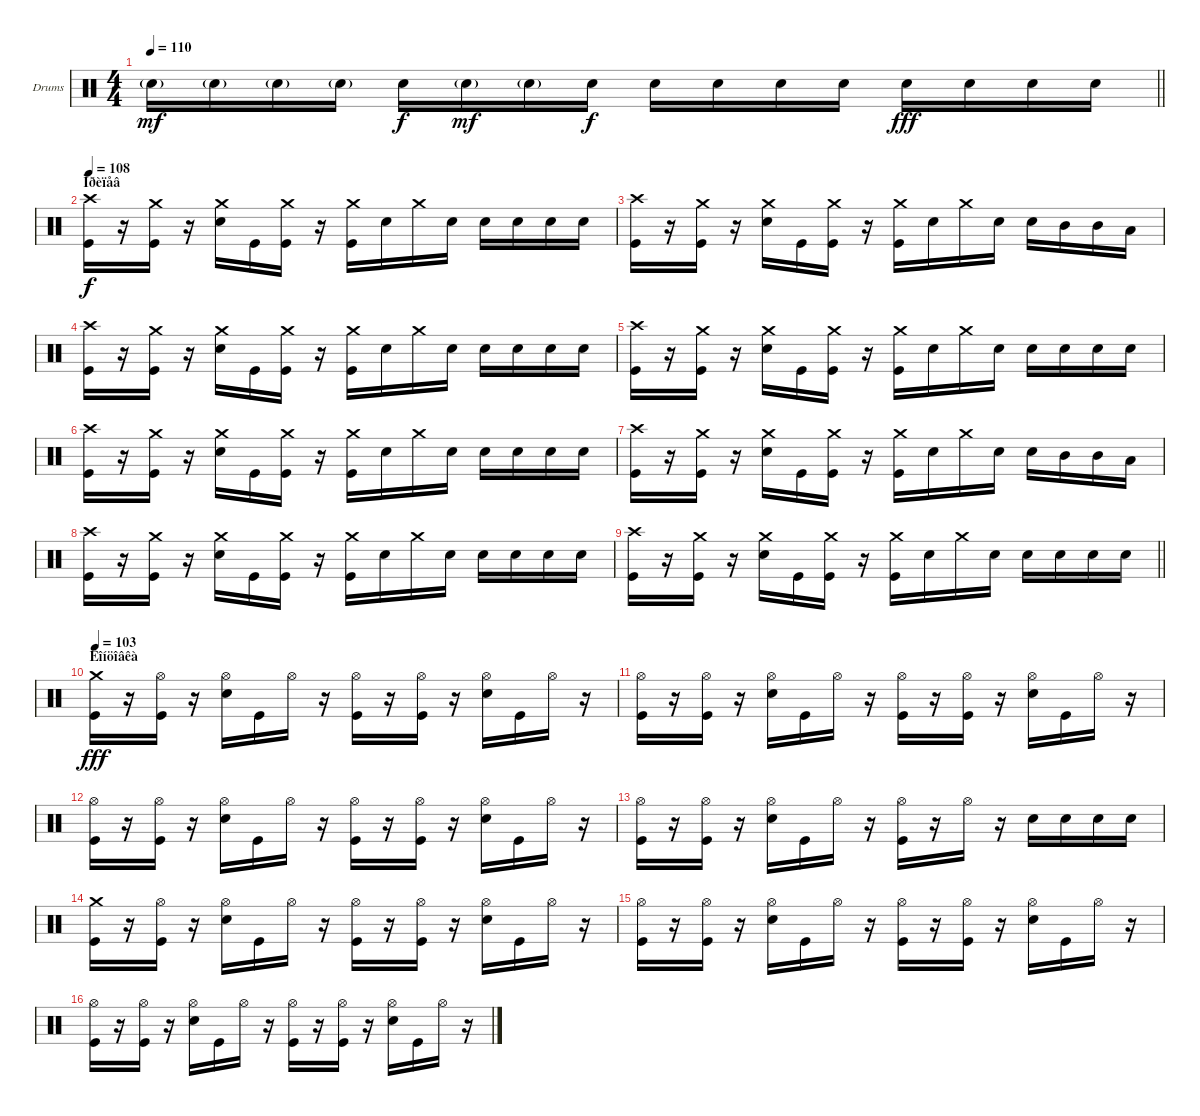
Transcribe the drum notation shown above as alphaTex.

\bracketExtendMode groupsimilarinstruments
\firstSystemTrackNameOrientation horizontal
\otherSystemsTrackNameOrientation horizontal
\track ("Drumkit" "Drums") {instrument percussion}
\staff {score}
\articulation defaults
\ts (4 4)
\tempo 110
\clef neutral
\barLineRight lightlight
\ks c "Snare (hit) 2"{g}.16{dy mf} "Snare (hit) 2"{g}.16 "Snare (hit) 2"{g}.16 "Snare (hit) 2"{g}.16 "Snare (hit) 2".16{dy f} "Snare (hit) 2"{g}.16{dy mf} "Snare (hit) 2"{g}.16 "Snare (hit) 2".16{dy f} "Snare (hit) 2".16 "Snare (hit) 2".16 "Snare (hit) 2".16 "Snare (hit) 2".16 "Snare (hit) 2".16{dy fff} "Snare (hit) 2".16 "Snare (hit) 2".16 "Snare (hit) 2".16
|
\section ("" "Ïðèïåâ")
\tempo 108
("Crash high (hit)" "Kick (hit)").16{dy f} r.16 ("Crash medium (hit)" "Kick (hit)").16 r.16 ("Crash medium (hit)" "Snare (hit) 2").16 "Kick (hit)".16 ("Crash medium (hit)" "Kick (hit)").16 r.16 ("Crash medium (hit)" "Kick (hit)").16 "Snare (hit) 2".16 "Crash medium (hit)".16 "Snare (hit) 2".16 "Snare (hit) 2".16 "Snare (hit) 2".16 "Snare (hit) 2".16 "Snare (hit) 2".16 |
("Crash high (hit)" "Kick (hit)").16 r.16 ("Crash medium (hit)" "Kick (hit)").16 r.16 ("Crash medium (hit)" "Snare (hit) 2").16 "Kick (hit)".16 ("Crash medium (hit)" "Kick (hit)").16 r.16 ("Crash medium (hit)" "Kick (hit)").16 "Snare (hit) 2".16 "Crash medium (hit)".16 "Snare (hit) 2".16 "Snare (hit) 2".16 "Mid Tom (hit)".16 "Mid Tom (hit)".16 "Low Tom (hit)".16 |
("Crash high (hit)" "Kick (hit)").16 r.16 ("Crash medium (hit)" "Kick (hit)").16 r.16 ("Crash medium (hit)" "Snare (hit) 2").16 "Kick (hit)".16 ("Crash medium (hit)" "Kick (hit)").16 r.16 ("Crash medium (hit)" "Kick (hit)").16 "Snare (hit) 2".16 "Crash medium (hit)".16 "Snare (hit) 2".16 "Snare (hit) 2".16 "Snare (hit) 2".16 "Snare (hit) 2".16 "Snare (hit) 2".16 |
("Crash high (hit)" "Kick (hit)").16 r.16 ("Crash medium (hit)" "Kick (hit)").16 r.16 ("Crash medium (hit)" "Snare (hit) 2").16 "Kick (hit)".16 ("Crash medium (hit)" "Kick (hit)").16 r.16 ("Crash medium (hit)" "Kick (hit)").16 "Snare (hit) 2".16 "Crash medium (hit)".16 "Snare (hit) 2".16 "Snare (hit) 2".16 "Snare (hit) 2".16 "Snare (hit) 2".16 "Snare (hit) 2".16 |
("Crash high (hit)" "Kick (hit)").16 r.16 ("Crash medium (hit)" "Kick (hit)").16 r.16 ("Crash medium (hit)" "Snare (hit) 2").16 "Kick (hit)".16 ("Crash medium (hit)" "Kick (hit)").16 r.16 ("Crash medium (hit)" "Kick (hit)").16 "Snare (hit) 2".16 "Crash medium (hit)".16 "Snare (hit) 2".16 "Snare (hit) 2".16 "Snare (hit) 2".16 "Snare (hit) 2".16 "Snare (hit) 2".16 |
("Crash high (hit)" "Kick (hit)").16 r.16 ("Crash medium (hit)" "Kick (hit)").16 r.16 ("Crash medium (hit)" "Snare (hit) 2").16 "Kick (hit)".16 ("Crash medium (hit)" "Kick (hit)").16 r.16 ("Crash medium (hit)" "Kick (hit)").16 "Snare (hit) 2".16 "Crash medium (hit)".16 "Snare (hit) 2".16 "Snare (hit) 2".16 "Mid Tom (hit)".16 "Mid Tom (hit)".16 "Low Tom (hit)".16 |
("Crash high (hit)" "Kick (hit)").16 r.16 ("Crash medium (hit)" "Kick (hit)").16 r.16 ("Crash medium (hit)" "Snare (hit) 2").16 "Kick (hit)".16 ("Crash medium (hit)" "Kick (hit)").16 r.16 ("Crash medium (hit)" "Kick (hit)").16 "Snare (hit) 2".16 "Crash medium (hit)".16 "Snare (hit) 2".16 "Snare (hit) 2".16 "Snare (hit) 2".16 "Snare (hit) 2".16 "Snare (hit) 2".16 |
\barLineRight lightlight
("Crash high (hit)" "Kick (hit)").16 r.16 ("Crash medium (hit)" "Kick (hit)").16 r.16 ("Crash medium (hit)" "Snare (hit) 2").16 "Kick (hit)".16 ("Crash medium (hit)" "Kick (hit)").16 r.16 ("Crash medium (hit)" "Kick (hit)").16 "Snare (hit) 2".16 "Crash medium (hit)".16 "Snare (hit) 2".16 "Snare (hit) 2".16 "Snare (hit) 2".16 "Snare (hit) 2".16 "Snare (hit) 2".16 |
\section ("" "Êîíöîâêà")
\tempo 103
("Crash medium (hit)" "Kick (hit)").16{dy fff} r.16 ("Hi-Hat (open)" "Kick (hit)").16 r.16 ("Hi-Hat (open)" "Snare (hit) 2").16 "Kick (hit)".16 "Hi-Hat (open)".16 r.16 ("Hi-Hat (open)" "Kick (hit)").16 r.16 ("Hi-Hat (open)" "Kick (hit)").16 r.16 ("Hi-Hat (open)" "Snare (hit) 2").16 "Kick (hit)".16 "Hi-Hat (open)".16 r.16 |
("Hi-Hat (open)" "Kick (hit)").16 r.16 ("Hi-Hat (open)" "Kick (hit)").16 r.16 ("Hi-Hat (open)" "Snare (hit) 2").16 "Kick (hit)".16 "Hi-Hat (open)".16 r.16 ("Hi-Hat (open)" "Kick (hit)").16 r.16 ("Hi-Hat (open)" "Kick (hit)").16 r.16 ("Hi-Hat (open)" "Snare (hit) 2").16 "Kick (hit)".16 "Hi-Hat (open)".16 r.16 |
("Hi-Hat (open)" "Kick (hit)").16 r.16 ("Hi-Hat (open)" "Kick (hit)").16 r.16 ("Hi-Hat (open)" "Snare (hit) 2").16 "Kick (hit)".16 "Hi-Hat (open)".16 r.16 ("Hi-Hat (open)" "Kick (hit)").16 r.16 ("Hi-Hat (open)" "Kick (hit)").16 r.16 ("Hi-Hat (open)" "Snare (hit) 2").16 "Kick (hit)".16 "Hi-Hat (open)".16 r.16 |
("Hi-Hat (open)" "Kick (hit)").16 r.16 ("Hi-Hat (open)" "Kick (hit)").16 r.16 ("Hi-Hat (open)" "Snare (hit) 2").16 "Kick (hit)".16 "Hi-Hat (open)".16 r.16 ("Hi-Hat (open)" "Kick (hit)").16 r.16 "Hi-Hat (open)".16 r.16 "Snare (hit) 2".16 "Snare (hit) 2".16 "Snare (hit) 2".16 "Snare (hit) 2".16 |
("Crash medium (hit)" "Kick (hit)").16 r.16 ("Hi-Hat (open)" "Kick (hit)").16 r.16 ("Hi-Hat (open)" "Snare (hit) 2").16 "Kick (hit)".16 "Hi-Hat (open)".16 r.16 ("Hi-Hat (open)" "Kick (hit)").16 r.16 ("Hi-Hat (open)" "Kick (hit)").16 r.16 ("Hi-Hat (open)" "Snare (hit) 2").16 "Kick (hit)".16 "Hi-Hat (open)".16 r.16 |
("Hi-Hat (open)" "Kick (hit)").16 r.16 ("Hi-Hat (open)" "Kick (hit)").16 r.16 ("Hi-Hat (open)" "Snare (hit) 2").16 "Kick (hit)".16 "Hi-Hat (open)".16 r.16 ("Hi-Hat (open)" "Kick (hit)").16 r.16 ("Hi-Hat (open)" "Kick (hit)").16 r.16 ("Hi-Hat (open)" "Snare (hit) 2").16 "Kick (hit)".16 "Hi-Hat (open)".16 r.16 |
("Hi-Hat (open)" "Kick (hit)").16 r.16 ("Hi-Hat (open)" "Kick (hit)").16 r.16 ("Hi-Hat (open)" "Snare (hit) 2").16 "Kick (hit)".16 "Hi-Hat (open)".16 r.16 ("Hi-Hat (open)" "Kick (hit)").16 r.16 ("Hi-Hat (open)" "Kick (hit)").16 r.16 ("Hi-Hat (open)" "Snare (hit) 2").16 "Kick (hit)".16 "Hi-Hat (open)".16 r.16
